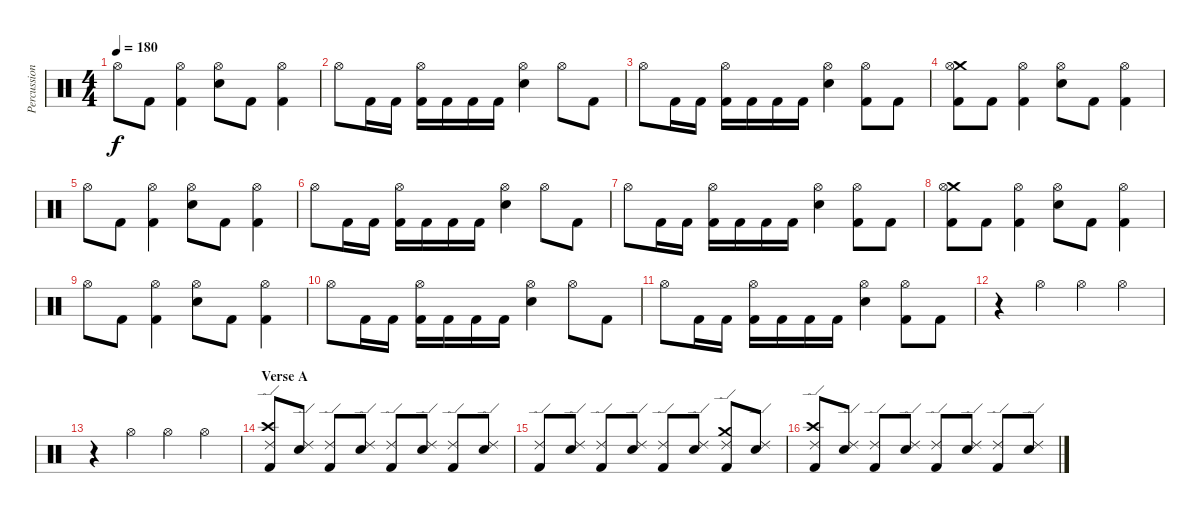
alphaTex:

\track ("Percussion" "Percussion") {instrument percussion}
\staff {score}
\articulation defaults
\ts (4 4)
\tempo 180
\clef neutral
\ks c "Hi-Hat (open)".8{dy f} "Kick (hit) 2".8
("Hi-Hat (open)" "Kick (hit) 2").4 ("Hi-Hat (open)" "Electric Snare (hit)").8 "Kick (hit) 2".8 ("Hi-Hat (open)" "Kick (hit) 2").4 |
"Hi-Hat (open)".8 "Kick (hit) 2".16 "Kick (hit) 2".16 ("Hi-Hat (open)" "Kick (hit) 2").16 "Kick (hit) 2".16 "Kick (hit) 2".16 "Kick (hit) 2".16 ("Hi-Hat (open)" "Electric Snare (hit)").4 "Hi-Hat (open)".8 "Kick (hit) 2".8 |
"Hi-Hat (open)".8 "Kick (hit) 2".16 "Kick (hit) 2".16 ("Hi-Hat (open)" "Kick (hit) 2").16 "Kick (hit) 2".16 "Kick (hit) 2".16 "Kick (hit) 2".16 ("Hi-Hat (open)" "Electric Snare (hit)").4 ("Hi-Hat (open)" "Kick (hit) 2").8 "Kick (hit) 2".8 |
("Crash medium (hit)" "Hi-Hat (open)" "Kick (hit) 2").8 "Kick (hit) 2".8 ("Hi-Hat (open)" "Kick (hit) 2").4 ("Hi-Hat (open)" "Electric Snare (hit)").8 "Kick (hit) 2".8 ("Hi-Hat (open)" "Kick (hit) 2").4 |
"Hi-Hat (open)".8 "Kick (hit) 2".8 ("Hi-Hat (open)" "Kick (hit) 2").4 ("Hi-Hat (open)" "Electric Snare (hit)").8 "Kick (hit) 2".8 ("Hi-Hat (open)" "Kick (hit) 2").4 |
"Hi-Hat (open)".8 "Kick (hit) 2".16 "Kick (hit) 2".16 ("Hi-Hat (open)" "Kick (hit) 2").16 "Kick (hit) 2".16 "Kick (hit) 2".16 "Kick (hit) 2".16 ("Hi-Hat (open)" "Electric Snare (hit)").4 "Hi-Hat (open)".8 "Kick (hit) 2".8 |
"Hi-Hat (open)".8 "Kick (hit) 2".16 "Kick (hit) 2".16 ("Hi-Hat (open)" "Kick (hit) 2").16 "Kick (hit) 2".16 "Kick (hit) 2".16 "Kick (hit) 2".16 ("Hi-Hat (open)" "Electric Snare (hit)").4 ("Hi-Hat (open)" "Kick (hit) 2").8 "Kick (hit) 2".8 |
("Crash medium (hit)" "Hi-Hat (open)" "Kick (hit) 2").8 "Kick (hit) 2".8 ("Hi-Hat (open)" "Kick (hit) 2").4 ("Hi-Hat (open)" "Electric Snare (hit)").8 "Kick (hit) 2".8 ("Hi-Hat (open)" "Kick (hit) 2").4 |
"Hi-Hat (open)".8 "Kick (hit) 2".8 ("Hi-Hat (open)" "Kick (hit) 2").4 ("Hi-Hat (open)" "Electric Snare (hit)").8 "Kick (hit) 2".8 ("Hi-Hat (open)" "Kick (hit) 2").4 |
"Hi-Hat (open)".8 "Kick (hit) 2".16 "Kick (hit) 2".16 ("Hi-Hat (open)" "Kick (hit) 2").16 "Kick (hit) 2".16 "Kick (hit) 2".16 "Kick (hit) 2".16 ("Hi-Hat (open)" "Electric Snare (hit)").4 "Hi-Hat (open)".8 "Kick (hit) 2".8 |
"Hi-Hat (open)".8 "Kick (hit) 2".16 "Kick (hit) 2".16 ("Hi-Hat (open)" "Kick (hit) 2").16 "Kick (hit) 2".16 "Kick (hit) 2".16 "Kick (hit) 2".16 ("Hi-Hat (open)" "Electric Snare (hit)").4 ("Hi-Hat (open)" "Kick (hit) 2").8 "Kick (hit) 2".8 |
r.4 "Hi-Hat (open)".4 "Hi-Hat (open)".4 "Hi-Hat (open)".4 |
r.4 "Hi-Hat (open)".4 "Hi-Hat (open)".4 "Hi-Hat (open)".4 |
\section ("" "Verse A")
("Crash high (hit)" "Ride (edge) 2" "Kick (hit) 2").8 ("Ride (edge) 2" "Electric Snare (hit)").8 ("Ride (edge) 2" "Kick (hit) 2").8 ("Ride (edge) 2" "Electric Snare (hit)").8 ("Ride (edge) 2" "Kick (hit) 2").8 ("Ride (edge) 2" "Electric Snare (hit)").8 ("Ride (edge) 2" "Kick (hit) 2").8 ("Ride (edge) 2" "Electric Snare (hit)").8 |
("Ride (edge) 2" "Kick (hit) 2").8 ("Ride (edge) 2" "Electric Snare (hit)").8 ("Ride (edge) 2" "Kick (hit) 2").8 ("Ride (edge) 2" "Electric Snare (hit)").8 ("Ride (edge) 2" "Kick (hit) 2").8 ("Ride (edge) 2" "Electric Snare (hit)").8 ("Crash medium (hit)" "Ride (edge) 2" "Kick (hit) 2").8 ("Ride (edge) 2" "Electric Snare (hit)").8 |
("Crash high (hit)" "Ride (edge) 2" "Kick (hit) 2").8 ("Ride (edge) 2" "Electric Snare (hit)").8 ("Ride (edge) 2" "Kick (hit) 2").8 ("Ride (edge) 2" "Electric Snare (hit)").8 ("Ride (edge) 2" "Kick (hit) 2").8 ("Ride (edge) 2" "Electric Snare (hit)").8 ("Ride (edge) 2" "Kick (hit) 2").8 ("Ride (edge) 2" "Electric Snare (hit)").8
